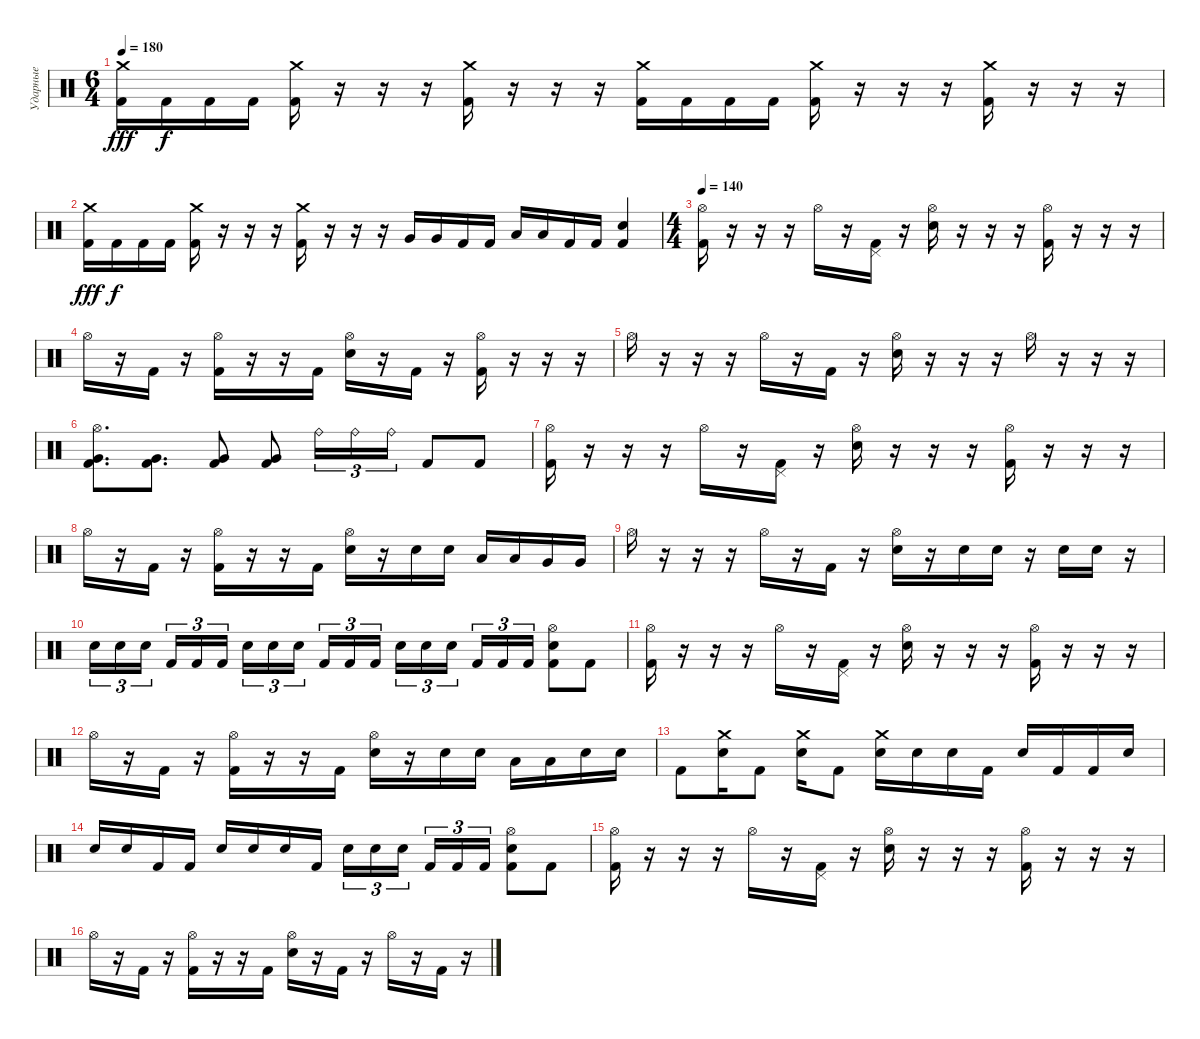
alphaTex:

\track ("Ударные" "Ударные") {instrument percussion}
\staff {score}
\articulation defaults
\ts (6 4)
\tempo 180
\clef neutral
\ks c
("Kick (hit) 2" "Crash medium (hit)").16{dy fff} "Kick (hit) 2".16{dy f} "Kick (hit) 2".16 "Kick (hit) 2".16 ("Kick (hit) 2" "Crash medium (hit)").16 r.16 r.16 r.16 ("Kick (hit) 2" "Crash medium (hit)").16 r.16 r.16 r.16 ("Kick (hit) 2" "Crash medium (hit)").16 "Kick (hit) 2".16 "Kick (hit) 2".16 "Kick (hit) 2".16 ("Kick (hit) 2" "Crash medium (hit)").16 r.16 r.16 r.16 ("Kick (hit) 2" "Crash medium (hit)").16 r.16 r.16 r.16 |
("Kick (hit) 2" "Crash medium (hit)").16{dy fff} "Kick (hit) 2".16{dy f} "Kick (hit) 2".16 "Kick (hit) 2".16 ("Kick (hit) 2" "Crash medium (hit)").16 r.16 r.16 r.16 ("Kick (hit) 2" "Crash medium (hit)").16 r.16 r.16 r.16 "Very Low Tom (hit)".16 "Very Low Tom (hit)".16 "Kick (hit) 2".16 "Kick (hit) 2".16 "Low Floor Tom (hit)".16 "Low Floor Tom (hit)".16 "Kick (hit) 2".16 "Kick (hit) 2".16 ("Kick (hit) 2" "Electric Snare (hit)").4 |
\ts (4 4)
\tempo 140
("Kick (hit) 2" "Hi-Hat (open)").16 r.16 r.16 r.16 "Hi-Hat (open)".16 r.16 ("Kick (hit) 2" "Pedal Hi-Hat (hit)").16 r.16 ("Electric Snare (hit)" "Hi-Hat (open)").16 r.16 r.16 r.16 ("Kick (hit) 2" "Hi-Hat (open)").16 r.16 r.16 r.16 |
"Hi-Hat (open)".16 r.16 "Kick (hit) 2".16 r.16 ("Kick (hit) 2" "Hi-Hat (open)").16 r.16 r.16 "Kick (hit) 2".16 ("Electric Snare (hit)" "Hi-Hat (open)").16 r.16 "Kick (hit) 2".16 r.16 ("Kick (hit) 2" "Hi-Hat (open)").16 r.16 r.16 r.16 |
"Hi-Hat (open)".16 r.16 r.16 r.16 "Hi-Hat (open)".16 r.16 "Kick (hit) 2".16 r.16 ("Electric Snare (hit)" "Hi-Hat (open)").16 r.16 r.16 r.16 "Hi-Hat (open)".16 r.16 r.16 r.16 |
("Kick (hit) 2" "Very Low Tom (hit)" "Hi-Hat (open)").8{d} ("Kick (hit) 2" "Very Low Tom (hit)").8{d} ("Very Low Tom (hit)" "Kick (hit) 2").8 ("Very Low Tom (hit)" "Kick (hit) 2").8 "Ride (bell)".16{tu (3 2)} "Ride (bell)".16{tu (3 2)} "Ride (bell)".16{tu (3 2)} "Kick (hit) 2".8 "Kick (hit) 2".8 |
("Kick (hit) 2" "Hi-Hat (open)").16 r.16 r.16 r.16 "Hi-Hat (open)".16 r.16 ("Kick (hit) 2" "Pedal Hi-Hat (hit)").16 r.16 ("Electric Snare (hit)" "Hi-Hat (open)").16 r.16 r.16 r.16 ("Kick (hit) 2" "Hi-Hat (open)").16 r.16 r.16 r.16 |
"Hi-Hat (open)".16 r.16 "Kick (hit) 2".16 r.16 ("Kick (hit) 2" "Hi-Hat (open)").16 r.16 r.16 "Kick (hit) 2".16 ("Electric Snare (hit)" "Hi-Hat (open)").16 r.16 "Electric Snare (hit)".16 "Electric Snare (hit)".16 "Low Tom (hit)".16 "Low Tom (hit)".16 "Very Low Tom (hit)".16 "Very Low Tom (hit)".16 |
"Hi-Hat (open)".16 r.16 r.16 r.16 "Hi-Hat (open)".16 r.16 "Kick (hit) 2".16 r.16 ("Electric Snare (hit)" "Hi-Hat (open)").16 r.16 "Electric Snare (hit)".16 "Electric Snare (hit)".16 r.16 "Electric Snare (hit)".16 "Electric Snare (hit)".16 r.16 |
"Electric Snare (hit)".16{tu (3 2)} "Electric Snare (hit)".16{tu (3 2)} "Electric Snare (hit)".16{tu (3 2) beam splitsecondary} "Kick (hit) 2".16{tu (3 2)} "Kick (hit) 2".16{tu (3 2)} "Kick (hit) 2".16{tu (3 2)} "Electric Snare (hit)".16{tu (3 2)} "Electric Snare (hit)".16{tu (3 2)} "Electric Snare (hit)".16{tu (3 2) beam splitsecondary} "Kick (hit) 2".16{tu (3 2)} "Kick (hit) 2".16{tu (3 2)} "Kick (hit) 2".16{tu (3 2)} "Electric Snare (hit)".16{tu (3 2)} "Electric Snare (hit)".16{tu (3 2)} "Electric Snare (hit)".16{tu (3 2) beam splitsecondary} "Kick (hit) 2".16{tu (3 2)} "Kick (hit) 2".16{tu (3 2)} "Kick (hit) 2".16{tu (3 2)} ("Electric Snare (hit)" "Hi-Hat (open)" "Kick (hit) 2").8 "Kick (hit) 2".8 |
("Kick (hit) 2" "Hi-Hat (open)").16 r.16 r.16 r.16 "Hi-Hat (open)".16 r.16 ("Kick (hit) 2" "Pedal Hi-Hat (hit)").16 r.16 ("Electric Snare (hit)" "Hi-Hat (open)").16 r.16 r.16 r.16 ("Kick (hit) 2" "Hi-Hat (open)").16 r.16 r.16 r.16 |
"Hi-Hat (open)".16 r.16 "Kick (hit) 2".16 r.16 ("Kick (hit) 2" "Hi-Hat (open)").16 r.16 r.16 "Kick (hit) 2".16 ("Electric Snare (hit)" "Hi-Hat (open)").16 r.16 "Electric Snare (hit)".16 "Electric Snare (hit)".16 "Low Tom (hit)".16 "Low Tom (hit)".16 "Electric Snare (hit)".16 "Electric Snare (hit)".16 |
"Kick (hit) 2".8 ("Electric Snare (hit)" "Crash medium (hit)").16 "Kick (hit) 2".8 ("Crash medium (hit)" "Electric Snare (hit)").16 "Kick (hit) 2".8 ("Electric Snare (hit)" "Crash medium (hit)").16 "Electric Snare (hit)".16 "Electric Snare (hit)".16 "Kick (hit) 2".16 "Electric Snare (hit)".16 "Kick (hit) 2".16 "Kick (hit) 2".16 "Electric Snare (hit)".16 |
"Electric Snare (hit)".16 "Electric Snare (hit)".16 "Kick (hit) 2".16 "Kick (hit) 2".16 "Electric Snare (hit)".16 "Electric Snare (hit)".16 "Electric Snare (hit)".16 "Kick (hit) 2".16 "Electric Snare (hit)".16{tu (3 2)} "Electric Snare (hit)".16{tu (3 2)} "Electric Snare (hit)".16{tu (3 2) beam splitsecondary} "Kick (hit) 2".16{tu (3 2)} "Kick (hit) 2".16{tu (3 2)} "Kick (hit) 2".16{tu (3 2)} ("Electric Snare (hit)" "Hi-Hat (open)" "Kick (hit) 2").8 "Kick (hit) 2".8 |
("Kick (hit) 2" "Hi-Hat (open)").16 r.16 r.16 r.16 "Hi-Hat (open)".16 r.16 ("Kick (hit) 2" "Pedal Hi-Hat (hit)").16 r.16 ("Electric Snare (hit)" "Hi-Hat (open)").16 r.16 r.16 r.16 ("Kick (hit) 2" "Hi-Hat (open)").16 r.16 r.16 r.16 |
"Hi-Hat (open)".16 r.16 "Kick (hit) 2".16 r.16 ("Kick (hit) 2" "Hi-Hat (open)").16 r.16 r.16 "Kick (hit) 2".16 ("Electric Snare (hit)" "Hi-Hat (open)").16 r.16 "Kick (hit) 2".16 r.16 "Hi-Hat (open)".16 r.16 "Kick (hit) 2".16 r.16
